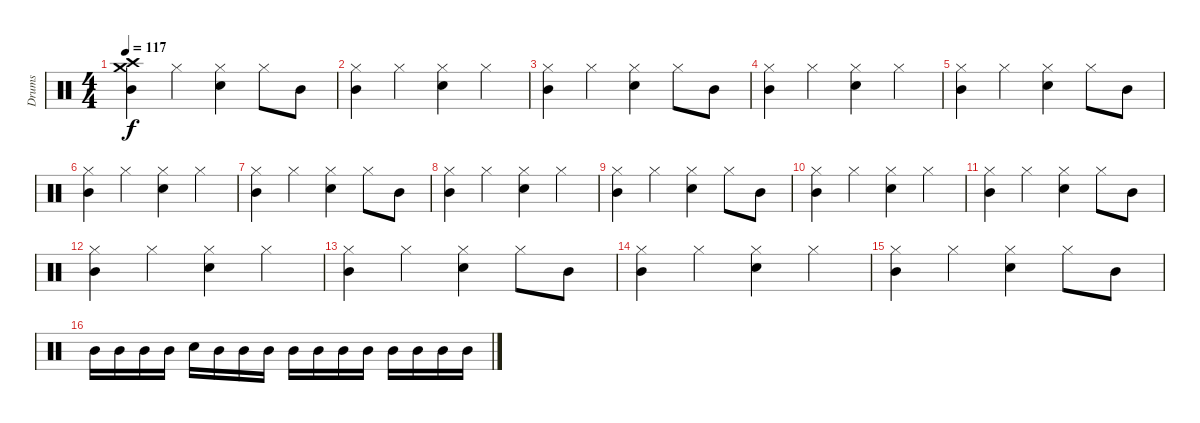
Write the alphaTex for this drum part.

\track ("Drums" "Drums") {instrument percussion}
\staff {score}
\articulation defaults
\ts (4 4)
\tempo 117
\clef neutral
\ks c
("Crash high (hit)" "Crash medium (hit)" "Mid Tom (hit)").4{dy f} "Hi-Hat (closed)".4 ("Hi-Hat (closed)" "Electric Snare (hit)").4 "Hi-Hat (closed)".8 "Mid Tom (hit)".8 |
("Hi-Hat (closed)" "Mid Tom (hit)").4 "Hi-Hat (closed)".4 ("Hi-Hat (closed)" "Electric Snare (hit)").4 "Hi-Hat (closed)".4 |
("Hi-Hat (closed)" "Mid Tom (hit)").4 "Hi-Hat (closed)".4 ("Hi-Hat (closed)" "Electric Snare (hit)").4 "Hi-Hat (closed)".8 "Mid Tom (hit)".8 |
("Hi-Hat (closed)" "Mid Tom (hit)").4 "Hi-Hat (closed)".4 ("Hi-Hat (closed)" "Electric Snare (hit)").4 "Hi-Hat (closed)".4 |
("Hi-Hat (closed)" "Mid Tom (hit)").4 "Hi-Hat (closed)".4 ("Hi-Hat (closed)" "Electric Snare (hit)").4 "Hi-Hat (closed)".8 "Mid Tom (hit)".8 |
("Hi-Hat (closed)" "Mid Tom (hit)").4 "Hi-Hat (closed)".4 ("Hi-Hat (closed)" "Electric Snare (hit)").4 "Hi-Hat (closed)".4 |
("Hi-Hat (closed)" "Mid Tom (hit)").4 "Hi-Hat (closed)".4 ("Hi-Hat (closed)" "Electric Snare (hit)").4 "Hi-Hat (closed)".8 "Mid Tom (hit)".8 |
("Hi-Hat (closed)" "Mid Tom (hit)").4 "Hi-Hat (closed)".4 ("Hi-Hat (closed)" "Electric Snare (hit)").4 "Hi-Hat (closed)".4 |
("Hi-Hat (closed)" "Mid Tom (hit)").4 "Hi-Hat (closed)".4 ("Hi-Hat (closed)" "Electric Snare (hit)").4 "Hi-Hat (closed)".8 "Mid Tom (hit)".8 |
("Hi-Hat (closed)" "Mid Tom (hit)").4 "Hi-Hat (closed)".4 ("Hi-Hat (closed)" "Electric Snare (hit)").4 "Hi-Hat (closed)".4 |
("Hi-Hat (closed)" "Mid Tom (hit)").4 "Hi-Hat (closed)".4 ("Hi-Hat (closed)" "Electric Snare (hit)").4 "Hi-Hat (closed)".8 "Mid Tom (hit)".8 |
("Hi-Hat (closed)" "Mid Tom (hit)").4 "Hi-Hat (closed)".4 ("Hi-Hat (closed)" "Electric Snare (hit)").4 "Hi-Hat (closed)".4 |
("Hi-Hat (closed)" "Mid Tom (hit)").4 "Hi-Hat (closed)".4 ("Hi-Hat (closed)" "Electric Snare (hit)").4 "Hi-Hat (closed)".8 "Mid Tom (hit)".8 |
("Hi-Hat (closed)" "Mid Tom (hit)").4 "Hi-Hat (closed)".4 ("Hi-Hat (closed)" "Electric Snare (hit)").4 "Hi-Hat (closed)".4 |
("Hi-Hat (closed)" "Mid Tom (hit)").4 "Hi-Hat (closed)".4 ("Hi-Hat (closed)" "Electric Snare (hit)").4 "Hi-Hat (closed)".8 "Mid Tom (hit)".8 |
"Mid Tom (hit)".16 "Mid Tom (hit)".16 "Mid Tom (hit)".16 "Mid Tom (hit)".16 "Electric Snare (hit)".16 "Mid Tom (hit)".16 "Mid Tom (hit)".16 "Mid Tom (hit)".16 "Mid Tom (hit)".16 "Mid Tom (hit)".16 "Mid Tom (hit)".16 "Mid Tom (hit)".16 "Mid Tom (hit)".16 "Mid Tom (hit)".16 "Mid Tom (hit)".16 "Mid Tom (hit)".16
